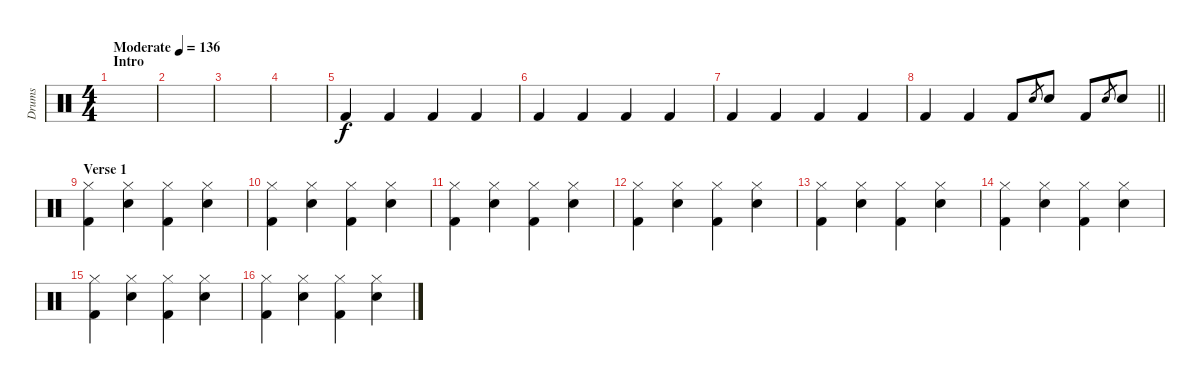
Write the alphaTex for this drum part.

\track ("Drums" "Drums") {instrument percussion}
\staff {score}
\articulation defaults
\ts (4 4)
\section ("" "Intro ")
\tempo (136 "Moderate")
\clef neutral
\ks c
|
|
|
|
"Kick (hit) 2".4 "Kick (hit) 2".4 "Kick (hit) 2".4 "Kick (hit) 2".4 |
"Kick (hit) 2".4 "Kick (hit) 2".4 "Kick (hit) 2".4 "Kick (hit) 2".4 |
"Kick (hit) 2".4 "Kick (hit) 2".4 "Kick (hit) 2".4 "Kick (hit) 2".4 |
\barLineRight lightlight "Kick (hit) 2".4 "Kick (hit) 2".4 "Kick (hit) 2".8 "Snare (hit) 2".8{gr} "Snare (hit) 2".8 "Kick (hit) 2".8 "Snare (hit) 2".8{gr} "Snare (hit) 2".8
|
\section ("" "Verse 1")
("Hi-Hat (closed)" "Kick (hit) 2").4 ("Hi-Hat (closed)" "Snare (hit) 2").4 ("Hi-Hat (closed)" "Kick (hit) 2").4 ("Hi-Hat (closed)" "Snare (hit) 2").4 |
("Hi-Hat (closed)" "Kick (hit) 2").4 ("Hi-Hat (closed)" "Snare (hit) 2").4 ("Hi-Hat (closed)" "Kick (hit) 2").4 ("Hi-Hat (closed)" "Snare (hit) 2").4 |
("Hi-Hat (closed)" "Kick (hit) 2").4 ("Hi-Hat (closed)" "Snare (hit) 2").4 ("Hi-Hat (closed)" "Kick (hit) 2").4 ("Hi-Hat (closed)" "Snare (hit) 2").4 |
("Hi-Hat (closed)" "Kick (hit) 2").4 ("Hi-Hat (closed)" "Snare (hit) 2").4 ("Hi-Hat (closed)" "Kick (hit) 2").4 ("Hi-Hat (closed)" "Snare (hit) 2").4 |
("Hi-Hat (closed)" "Kick (hit) 2").4 ("Hi-Hat (closed)" "Snare (hit) 2").4 ("Hi-Hat (closed)" "Kick (hit) 2").4 ("Hi-Hat (closed)" "Snare (hit) 2").4 |
("Hi-Hat (closed)" "Kick (hit) 2").4 ("Hi-Hat (closed)" "Snare (hit) 2").4 ("Hi-Hat (closed)" "Kick (hit) 2").4 ("Hi-Hat (closed)" "Snare (hit) 2").4 |
("Hi-Hat (closed)" "Kick (hit) 2").4 ("Hi-Hat (closed)" "Snare (hit) 2").4 ("Hi-Hat (closed)" "Kick (hit) 2").4 ("Hi-Hat (closed)" "Snare (hit) 2").4 |
("Hi-Hat (closed)" "Kick (hit) 2").4 ("Hi-Hat (closed)" "Snare (hit) 2").4 ("Hi-Hat (closed)" "Kick (hit) 2").4 ("Hi-Hat (closed)" "Snare (hit) 2").4
